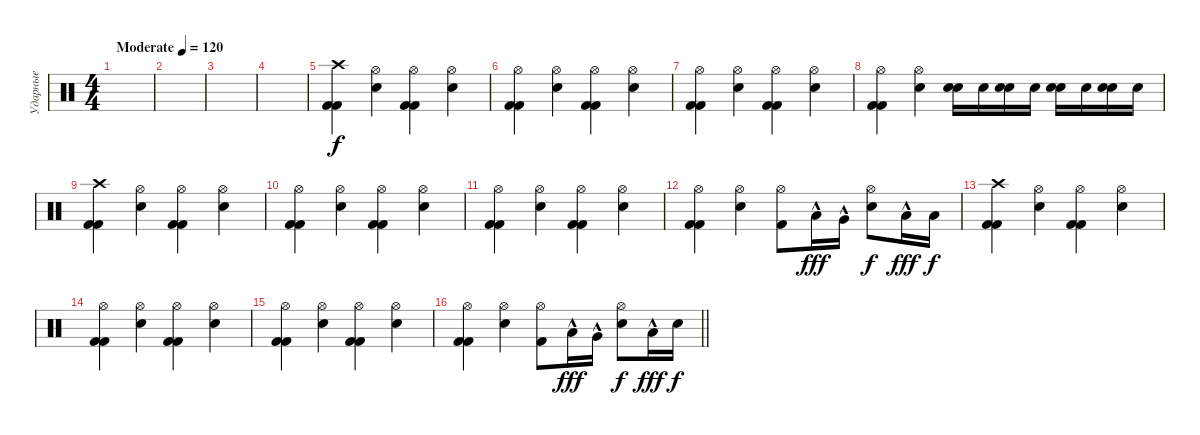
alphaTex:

\track ("Ударные" "Ударные") {instrument percussion}
\staff {score}
\articulation defaults
\ts (4 4)
\section ("" "")
\tempo (120 "Moderate")
\clef neutral
\ks c
|
|
|
|
("Crash high (hit)" "Kick (hit) 2" "Kick (hit) 2").4 ("Snare (hit) 2" "Hi-Hat (open)").4 ("Hi-Hat (open)" "Kick (hit) 2" "Kick (hit) 2").4 ("Snare (hit) 2" "Hi-Hat (open)").4 |
("Hi-Hat (open)" "Kick (hit) 2" "Kick (hit) 2").4 ("Snare (hit) 2" "Hi-Hat (open)").4 ("Hi-Hat (open)" "Kick (hit) 2" "Kick (hit) 2").4 ("Snare (hit) 2" "Hi-Hat (open)").4 |
("Hi-Hat (open)" "Kick (hit) 2" "Kick (hit) 2").4 ("Snare (hit) 2" "Hi-Hat (open)").4 ("Hi-Hat (open)" "Kick (hit) 2" "Kick (hit) 2").4 ("Snare (hit) 2" "Hi-Hat (open)").4 |
("Hi-Hat (open)" "Kick (hit) 2" "Kick (hit) 2").4 ("Hi-Hat (open)" "Snare (hit) 2").4 ("Snare (hit) 2" "Electric Snare (hit)").16 "Snare (hit) 2".16 ("Snare (hit) 2" "Electric Snare (hit)").16 "Snare (hit) 2".16 ("Snare (hit) 2" "Electric Snare (hit)").16 "Snare (hit) 2".16 ("Snare (hit) 2" "Electric Snare (hit)").16 "Snare (hit) 2".16 |
("Crash high (hit)" "Kick (hit) 2" "Kick (hit) 2").4 ("Snare (hit) 2" "Hi-Hat (open)").4 ("Hi-Hat (open)" "Kick (hit) 2" "Kick (hit) 2").4 ("Snare (hit) 2" "Hi-Hat (open)").4 |
("Hi-Hat (open)" "Kick (hit) 2" "Kick (hit) 2").4 ("Snare (hit) 2" "Hi-Hat (open)").4 ("Hi-Hat (open)" "Kick (hit) 2" "Kick (hit) 2").4 ("Snare (hit) 2" "Hi-Hat (open)").4 |
("Hi-Hat (open)" "Kick (hit) 2" "Kick (hit) 2").4 ("Snare (hit) 2" "Hi-Hat (open)").4 ("Hi-Hat (open)" "Kick (hit) 2" "Kick (hit) 2").4 ("Snare (hit) 2" "Hi-Hat (open)").4 |
("Hi-Hat (open)" "Kick (hit) 2" "Kick (hit) 2").4 ("Hi-Hat (open)" "Snare (hit) 2").4 ("Hi-Hat (open)" "Kick (hit) 2").8 "Low Floor Tom (hit)"{hac}.16{dy fff} "Very Low Tom (hit)"{hac}.16 ("Hi-Hat (open)" "Snare (hit) 2").8{dy f} "Low Tom (hit)"{hac}.16{dy fff} "Low Floor Tom (hit)".16{dy f} |
("Crash high (hit)" "Kick (hit) 2" "Kick (hit) 2").4 ("Snare (hit) 2" "Hi-Hat (open)").4 ("Hi-Hat (open)" "Kick (hit) 2" "Kick (hit) 2").4 ("Snare (hit) 2" "Hi-Hat (open)").4 |
("Hi-Hat (open)" "Kick (hit) 2" "Kick (hit) 2").4 ("Snare (hit) 2" "Hi-Hat (open)").4 ("Hi-Hat (open)" "Kick (hit) 2" "Kick (hit) 2").4 ("Snare (hit) 2" "Hi-Hat (open)").4 |
("Hi-Hat (open)" "Kick (hit) 2" "Kick (hit) 2").4 ("Snare (hit) 2" "Hi-Hat (open)").4 ("Hi-Hat (open)" "Kick (hit) 2" "Kick (hit) 2").4 ("Snare (hit) 2" "Hi-Hat (open)").4 |
\barLineRight lightlight
("Hi-Hat (open)" "Kick (hit) 2" "Kick (hit) 2").4 ("Hi-Hat (open)" "Snare (hit) 2").4 ("Hi-Hat (open)" "Kick (hit) 2").8 "Low Floor Tom (hit)"{hac}.16{dy fff} "Very Low Tom (hit)"{hac}.16 ("Hi-Hat (open)" "Snare (hit) 2").8{dy f} "Low Tom (hit)"{hac}.16{dy fff} "Snare (hit) 2".16{dy f}
